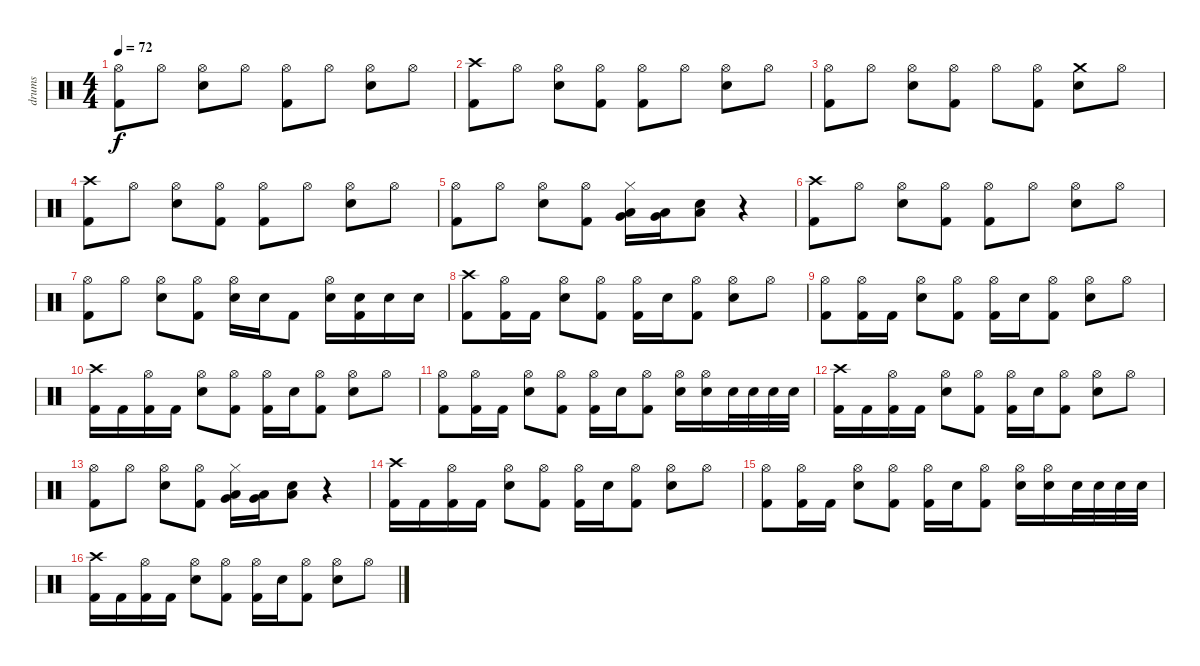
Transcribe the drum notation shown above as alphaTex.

\track ("drums" "drums") {instrument percussion}
\staff {score}
\articulation defaults
\ts (4 4)
\tempo 72
\clef neutral
\ks c
("Hi-Hat (open)" "Kick (hit) 2").8{dy f} "Hi-Hat (open)".8 ("Hi-Hat (open)" "Electric Snare (hit)").8 "Hi-Hat (open)".8 ("Hi-Hat (open)" "Kick (hit) 2").8 "Hi-Hat (open)".8 ("Hi-Hat (open)" "Electric Snare (hit)").8 "Hi-Hat (open)".8 |
("Crash high (hit)" "Kick (hit) 2").8 "Hi-Hat (open)".8 ("Hi-Hat (open)" "Electric Snare (hit)").8 ("Hi-Hat (open)" "Kick (hit) 2").8 ("Hi-Hat (open)" "Kick (hit) 2").8 "Hi-Hat (open)".8 ("Hi-Hat (open)" "Electric Snare (hit)").8 "Hi-Hat (open)".8 |
("Hi-Hat (open)" "Kick (hit) 2").8 "Hi-Hat (open)".8 ("Hi-Hat (open)" "Electric Snare (hit)").8 ("Hi-Hat (open)" "Kick (hit) 2").8 "Hi-Hat (open)".8 ("Hi-Hat (open)" "Kick (hit) 2").8 ("Crash medium (hit)" "Electric Snare (hit)").8 "Hi-Hat (open)".8 |
("Crash high (hit)" "Kick (hit) 2").8 "Hi-Hat (open)".8 ("Hi-Hat (open)" "Electric Snare (hit)").8 ("Hi-Hat (open)" "Kick (hit) 2").8 ("Hi-Hat (open)" "Kick (hit) 2").8 "Hi-Hat (open)".8 ("Hi-Hat (open)" "Electric Snare (hit)").8 "Hi-Hat (open)".8 |
("Hi-Hat (open)" "Kick (hit) 2").8 "Hi-Hat (open)".8 ("Hi-Hat (open)" "Electric Snare (hit)").8 ("Hi-Hat (open)" "Kick (hit) 2").8 ("Hi-Hat (closed)" "Low Floor Tom (hit)" "Very Low Tom (hit)").16 ("Low Floor Tom (hit)" "Very Low Tom (hit)").16 ("Low Floor Tom (hit)" "Electric Snare (hit)").8 r.4 |
("Crash high (hit)" "Kick (hit) 2").8 "Hi-Hat (open)".8 ("Hi-Hat (open)" "Electric Snare (hit)").8 ("Hi-Hat (open)" "Kick (hit) 2").8 ("Hi-Hat (open)" "Kick (hit) 2").8 "Hi-Hat (open)".8 ("Hi-Hat (open)" "Electric Snare (hit)").8 "Hi-Hat (open)".8 |
("Hi-Hat (open)" "Kick (hit) 2").8 "Hi-Hat (open)".8 ("Hi-Hat (open)" "Electric Snare (hit)").8 ("Hi-Hat (open)" "Kick (hit) 2").8 ("Hi-Hat (open)" "Electric Snare (hit)").16 "Electric Snare (hit)".16 "Kick (hit) 2".8 ("Hi-Hat (open)" "Electric Snare (hit)").16 ("Electric Snare (hit)" "Kick (hit) 2").16 "Electric Snare (hit)".16 "Electric Snare (hit)".16 |
("Crash high (hit)" "Kick (hit) 2").8 ("Hi-Hat (open)" "Kick (hit) 2").16 "Kick (hit) 2".16 ("Hi-Hat (open)" "Electric Snare (hit)").8 ("Hi-Hat (open)" "Kick (hit) 2").8 ("Hi-Hat (open)" "Kick (hit) 2").16 "Electric Snare (hit)".16 ("Hi-Hat (open)" "Kick (hit) 2").8 ("Hi-Hat (open)" "Electric Snare (hit)").8 "Hi-Hat (open)".8 |
("Hi-Hat (open)" "Kick (hit) 2").8 ("Hi-Hat (open)" "Kick (hit) 2").16 "Kick (hit) 2".16 ("Hi-Hat (open)" "Electric Snare (hit)").8 ("Hi-Hat (open)" "Kick (hit) 2").8 ("Hi-Hat (open)" "Kick (hit) 2").16 "Electric Snare (hit)".16 ("Hi-Hat (open)" "Kick (hit) 2").8 ("Hi-Hat (open)" "Electric Snare (hit)").8 "Hi-Hat (open)".8 |
("Crash high (hit)" "Kick (hit) 2").16 "Kick (hit) 2".16 ("Hi-Hat (open)" "Kick (hit) 2").16 "Kick (hit) 2".16 ("Hi-Hat (open)" "Electric Snare (hit)").8 ("Hi-Hat (open)" "Kick (hit) 2").8 ("Hi-Hat (open)" "Kick (hit) 2").16 "Electric Snare (hit)".16 ("Hi-Hat (open)" "Kick (hit) 2").8 ("Hi-Hat (open)" "Electric Snare (hit)").8 "Hi-Hat (open)".8 |
("Hi-Hat (open)" "Kick (hit) 2").8 ("Hi-Hat (open)" "Kick (hit) 2").16 "Kick (hit) 2".16 ("Hi-Hat (open)" "Electric Snare (hit)").8 ("Hi-Hat (open)" "Kick (hit) 2").8 ("Hi-Hat (open)" "Kick (hit) 2").16 "Electric Snare (hit)".16 ("Hi-Hat (open)" "Kick (hit) 2").8 ("Hi-Hat (open)" "Electric Snare (hit)").16 ("Hi-Hat (open)" "Electric Snare (hit)").16 "Electric Snare (hit)".32 "Electric Snare (hit)".32 "Electric Snare (hit)".32 "Electric Snare (hit)".32 |
("Crash high (hit)" "Kick (hit) 2").16 "Kick (hit) 2".16 ("Hi-Hat (open)" "Kick (hit) 2").16 "Kick (hit) 2".16 ("Hi-Hat (open)" "Electric Snare (hit)").8 ("Hi-Hat (open)" "Kick (hit) 2").8 ("Hi-Hat (open)" "Kick (hit) 2").16 "Electric Snare (hit)".16 ("Hi-Hat (open)" "Kick (hit) 2").8 ("Hi-Hat (open)" "Electric Snare (hit)").8 "Hi-Hat (open)".8 |
("Hi-Hat (open)" "Kick (hit) 2").8 "Hi-Hat (open)".8 ("Hi-Hat (open)" "Electric Snare (hit)").8 ("Hi-Hat (open)" "Kick (hit) 2").8 ("Hi-Hat (closed)" "Low Floor Tom (hit)" "Very Low Tom (hit)").16 ("Low Floor Tom (hit)" "Very Low Tom (hit)").16 ("Low Floor Tom (hit)" "Electric Snare (hit)").8 r.4 |
("Crash high (hit)" "Kick (hit) 2").16 "Kick (hit) 2".16 ("Hi-Hat (open)" "Kick (hit) 2").16 "Kick (hit) 2".16 ("Hi-Hat (open)" "Electric Snare (hit)").8 ("Hi-Hat (open)" "Kick (hit) 2").8 ("Hi-Hat (open)" "Kick (hit) 2").16 "Electric Snare (hit)".16 ("Hi-Hat (open)" "Kick (hit) 2").8 ("Hi-Hat (open)" "Electric Snare (hit)").8 "Hi-Hat (open)".8 |
("Hi-Hat (open)" "Kick (hit) 2").8 ("Hi-Hat (open)" "Kick (hit) 2").16 "Kick (hit) 2".16 ("Hi-Hat (open)" "Electric Snare (hit)").8 ("Hi-Hat (open)" "Kick (hit) 2").8 ("Hi-Hat (open)" "Kick (hit) 2").16 "Electric Snare (hit)".16 ("Hi-Hat (open)" "Kick (hit) 2").8 ("Hi-Hat (open)" "Electric Snare (hit)").16 ("Hi-Hat (open)" "Electric Snare (hit)").16 "Electric Snare (hit)".32 "Electric Snare (hit)".32 "Electric Snare (hit)".32 "Electric Snare (hit)".32 |
("Crash high (hit)" "Kick (hit) 2").16 "Kick (hit) 2".16 ("Hi-Hat (open)" "Kick (hit) 2").16 "Kick (hit) 2".16 ("Hi-Hat (open)" "Electric Snare (hit)").8 ("Hi-Hat (open)" "Kick (hit) 2").8 ("Hi-Hat (open)" "Kick (hit) 2").16 "Electric Snare (hit)".16 ("Hi-Hat (open)" "Kick (hit) 2").8 ("Hi-Hat (open)" "Electric Snare (hit)").8 "Hi-Hat (open)".8
